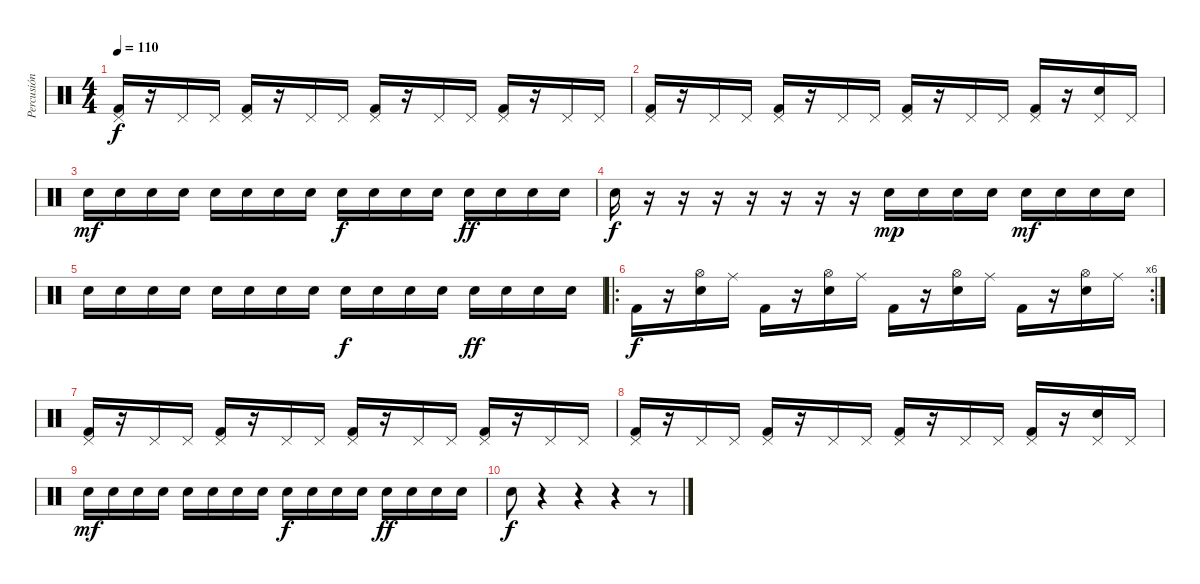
\track ("Percusión" "Percusión") {instrument percussion}
\staff {score}
\articulation defaults
\ts (4 4)
\tempo 110
\clef neutral
\ks c
("Pedal Hi-Hat (hit)" "Kick (hit) 2").16{dy f} r.16 "Pedal Hi-Hat (hit)".16 "Pedal Hi-Hat (hit)".16 ("Pedal Hi-Hat (hit)" "Kick (hit) 2").16 r.16 "Pedal Hi-Hat (hit)".16 "Pedal Hi-Hat (hit)".16 ("Pedal Hi-Hat (hit)" "Kick (hit) 2").16 r.16 "Pedal Hi-Hat (hit)".16 "Pedal Hi-Hat (hit)".16 ("Pedal Hi-Hat (hit)" "Kick (hit) 2").16 r.16 "Pedal Hi-Hat (hit)".16 "Pedal Hi-Hat (hit)".16 |
("Pedal Hi-Hat (hit)" "Kick (hit) 2").16 r.16 "Pedal Hi-Hat (hit)".16 "Pedal Hi-Hat (hit)".16 ("Pedal Hi-Hat (hit)" "Kick (hit) 2").16 r.16 "Pedal Hi-Hat (hit)".16 "Pedal Hi-Hat (hit)".16 ("Pedal Hi-Hat (hit)" "Kick (hit) 2").16 r.16 "Pedal Hi-Hat (hit)".16 "Pedal Hi-Hat (hit)".16 ("Pedal Hi-Hat (hit)" "Kick (hit) 2").16 r.16 ("Pedal Hi-Hat (hit)" "Electric Snare (hit)").16 "Pedal Hi-Hat (hit)".16 |
"Electric Snare (hit)".16{dy mf} "Electric Snare (hit)".16 "Electric Snare (hit)".16 "Electric Snare (hit)".16 "Electric Snare (hit)".16 "Electric Snare (hit)".16 "Electric Snare (hit)".16 "Electric Snare (hit)".16 "Electric Snare (hit)".16{dy f} "Electric Snare (hit)".16 "Electric Snare (hit)".16 "Electric Snare (hit)".16 "Electric Snare (hit)".16{dy ff} "Electric Snare (hit)".16 "Electric Snare (hit)".16 "Electric Snare (hit)".16 |
"Electric Snare (hit)".16{dy f} r.16 r.16 r.16 r.16 r.16 r.16 r.16 "Electric Snare (hit)".16{dy mp} "Electric Snare (hit)".16 "Electric Snare (hit)".16 "Electric Snare (hit)".16 "Electric Snare (hit)".16{dy mf} "Electric Snare (hit)".16 "Electric Snare (hit)".16 "Electric Snare (hit)".16 |
"Electric Snare (hit)".16 "Electric Snare (hit)".16 "Electric Snare (hit)".16 "Electric Snare (hit)".16 "Electric Snare (hit)".16 "Electric Snare (hit)".16 "Electric Snare (hit)".16 "Electric Snare (hit)".16 "Electric Snare (hit)".16{dy f} "Electric Snare (hit)".16 "Electric Snare (hit)".16 "Electric Snare (hit)".16 "Electric Snare (hit)".16{dy ff} "Electric Snare (hit)".16 "Electric Snare (hit)".16 "Electric Snare (hit)".16 |
\ro
\rc 6 "Kick (hit) 2".16{dy f}
r.16 ("Hi-Hat (open)" "Electric Snare (hit)").16 "Ride (middle)".16 "Kick (hit) 2".16 r.16 ("Hi-Hat (open)" "Electric Snare (hit)").16 "Ride (middle)".16 "Kick (hit) 2".16 r.16 ("Hi-Hat (open)" "Electric Snare (hit)").16 "Ride (middle)".16 "Kick (hit) 2".16 r.16 ("Hi-Hat (open)" "Electric Snare (hit)").16 "Ride (middle)".16 |
("Pedal Hi-Hat (hit)" "Kick (hit) 2").16 r.16 "Pedal Hi-Hat (hit)".16 "Pedal Hi-Hat (hit)".16 ("Pedal Hi-Hat (hit)" "Kick (hit) 2").16 r.16 "Pedal Hi-Hat (hit)".16 "Pedal Hi-Hat (hit)".16 ("Pedal Hi-Hat (hit)" "Kick (hit) 2").16 r.16 "Pedal Hi-Hat (hit)".16 "Pedal Hi-Hat (hit)".16 ("Pedal Hi-Hat (hit)" "Kick (hit) 2").16 r.16 "Pedal Hi-Hat (hit)".16 "Pedal Hi-Hat (hit)".16 |
("Pedal Hi-Hat (hit)" "Kick (hit) 2").16 r.16 "Pedal Hi-Hat (hit)".16 "Pedal Hi-Hat (hit)".16 ("Pedal Hi-Hat (hit)" "Kick (hit) 2").16 r.16 "Pedal Hi-Hat (hit)".16 "Pedal Hi-Hat (hit)".16 ("Pedal Hi-Hat (hit)" "Kick (hit) 2").16 r.16 "Pedal Hi-Hat (hit)".16 "Pedal Hi-Hat (hit)".16 ("Pedal Hi-Hat (hit)" "Kick (hit) 2").16 r.16 ("Pedal Hi-Hat (hit)" "Electric Snare (hit)").16 "Pedal Hi-Hat (hit)".16 |
"Electric Snare (hit)".16{dy mf} "Electric Snare (hit)".16 "Electric Snare (hit)".16 "Electric Snare (hit)".16 "Electric Snare (hit)".16 "Electric Snare (hit)".16 "Electric Snare (hit)".16 "Electric Snare (hit)".16 "Electric Snare (hit)".16{dy f} "Electric Snare (hit)".16 "Electric Snare (hit)".16 "Electric Snare (hit)".16 "Electric Snare (hit)".16{dy ff} "Electric Snare (hit)".16 "Electric Snare (hit)".16 "Electric Snare (hit)".16 |
"Electric Snare (hit)".8{dy f} r.4 r.4 r.4 r.8
